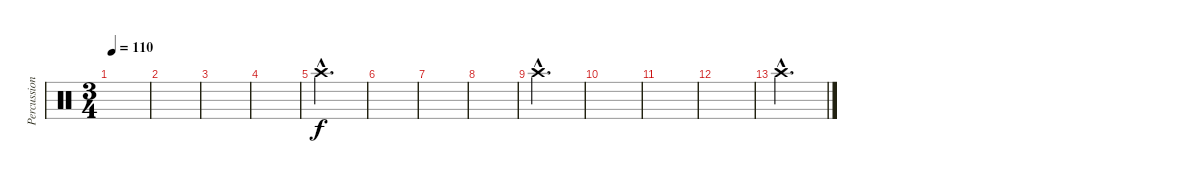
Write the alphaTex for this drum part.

\track ("Percussion" "Percussion") {instrument percussion}
\staff {score}
\articulation defaults
\ts (3 4)
\tempo 110
\clef neutral
\ks c
|
|
|
|
"Crash high (hit)"{hac}.2{d} |
|
|
|
"Crash high (hit)"{hac}.2{d} |
|
|
|
"Crash high (hit)"{hac}.2{d}
